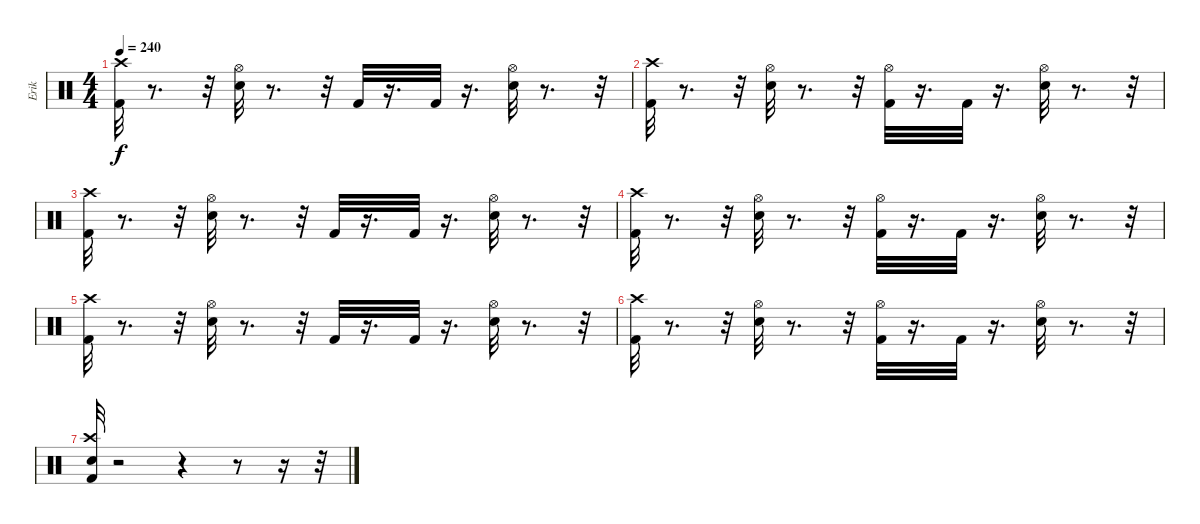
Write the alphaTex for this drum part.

\track ("Erik" "Erik") {instrument percussion}
\staff {score}
\articulation defaults
\ts (4 4)
\tempo 240
\clef neutral
\ks c
("Kick (hit) 2" "Crash high (hit)").32{dy f} r.8{d} r.32 ("Electric Snare (hit)" "Hi-Hat (open)").32 r.8{d} r.32 "Kick (hit) 2".32 r.16{d} "Kick (hit) 2".32 r.16{d} ("Electric Snare (hit)" "Hi-Hat (open)").32 r.8{d} r.32 |
("Kick (hit) 2" "Crash high (hit)").32 r.8{d} r.32 ("Electric Snare (hit)" "Hi-Hat (open)").32 r.8{d} r.32 ("Kick (hit) 2" "Hi-Hat (open)").32 r.16{d} "Kick (hit) 2".32 r.16{d} ("Electric Snare (hit)" "Hi-Hat (open)").32 r.8{d} r.32 |
("Kick (hit) 2" "Crash high (hit)").32 r.8{d} r.32 ("Electric Snare (hit)" "Hi-Hat (open)").32 r.8{d} r.32 "Kick (hit) 2".32 r.16{d} "Kick (hit) 2".32 r.16{d} ("Electric Snare (hit)" "Hi-Hat (open)").32 r.8{d} r.32 |
("Kick (hit) 2" "Crash high (hit)").32 r.8{d} r.32 ("Electric Snare (hit)" "Hi-Hat (open)").32 r.8{d} r.32 ("Kick (hit) 2" "Hi-Hat (open)").32 r.16{d} "Kick (hit) 2".32 r.16{d} ("Electric Snare (hit)" "Hi-Hat (open)").32 r.8{d} r.32 |
("Kick (hit) 2" "Crash high (hit)").32 r.8{d} r.32 ("Electric Snare (hit)" "Hi-Hat (open)").32 r.8{d} r.32 "Kick (hit) 2".32 r.16{d} "Kick (hit) 2".32 r.16{d} ("Electric Snare (hit)" "Hi-Hat (open)").32 r.8{d} r.32 |
("Kick (hit) 2" "Crash high (hit)").32 r.8{d} r.32 ("Electric Snare (hit)" "Hi-Hat (open)").32 r.8{d} r.32 ("Kick (hit) 2" "Hi-Hat (open)").32 r.16{d} "Kick (hit) 2".32 r.16{d} ("Electric Snare (hit)" "Hi-Hat (open)").32 r.8{d} r.32 |
("Kick (hit) 2" "Crash high (hit)" "Electric Snare (hit)").32 r.2 r.4 r.8 r.16 r.32
